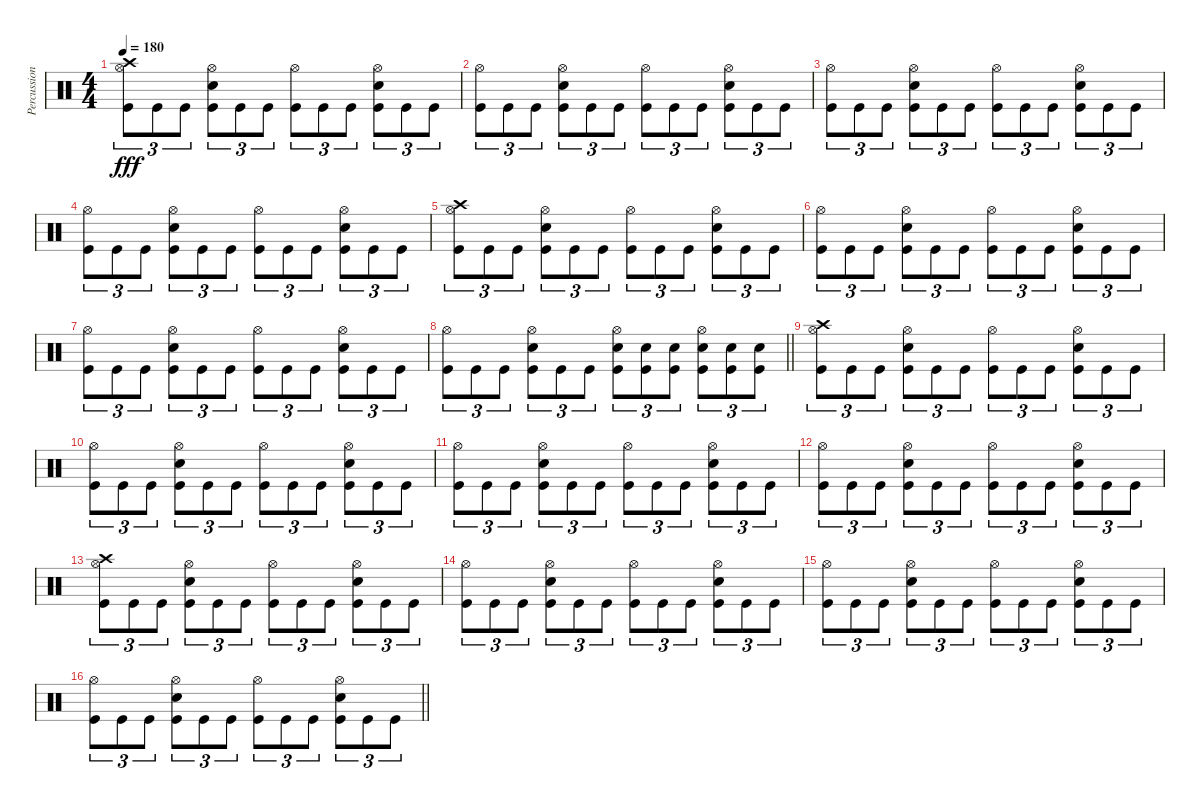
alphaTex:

\track ("Percussion" "Percussion") {instrument percussion}
\staff {score}
\articulation defaults
\ts (4 4)
\tempo 180
\clef neutral
\ks c
("Crash high (hit)" "Hi-Hat (open)" "Kick (hit)").8{tu (3 2) dy fff} "Kick (hit)".8{tu (3 2)} "Kick (hit)".8{tu (3 2)} ("Hi-Hat (open)" "Electric Snare (hit)" "Kick (hit)").8{tu (3 2)} "Kick (hit)".8{tu (3 2)} "Kick (hit)".8{tu (3 2)} ("Hi-Hat (open)" "Kick (hit)").8{tu (3 2)} "Kick (hit)".8{tu (3 2)} "Kick (hit)".8{tu (3 2)} ("Hi-Hat (open)" "Electric Snare (hit)" "Kick (hit)").8{tu (3 2)} "Kick (hit)".8{tu (3 2)} "Kick (hit)".8{tu (3 2)} |
("Hi-Hat (open)" "Kick (hit)").8{tu (3 2)} "Kick (hit)".8{tu (3 2)} "Kick (hit)".8{tu (3 2)} ("Hi-Hat (open)" "Electric Snare (hit)" "Kick (hit)").8{tu (3 2)} "Kick (hit)".8{tu (3 2)} "Kick (hit)".8{tu (3 2)} ("Hi-Hat (open)" "Kick (hit)").8{tu (3 2)} "Kick (hit)".8{tu (3 2)} "Kick (hit)".8{tu (3 2)} ("Hi-Hat (open)" "Electric Snare (hit)" "Kick (hit)").8{tu (3 2)} "Kick (hit)".8{tu (3 2)} "Kick (hit)".8{tu (3 2)} |
("Hi-Hat (open)" "Kick (hit)").8{tu (3 2)} "Kick (hit)".8{tu (3 2)} "Kick (hit)".8{tu (3 2)} ("Hi-Hat (open)" "Electric Snare (hit)" "Kick (hit)").8{tu (3 2)} "Kick (hit)".8{tu (3 2)} "Kick (hit)".8{tu (3 2)} ("Hi-Hat (open)" "Kick (hit)").8{tu (3 2)} "Kick (hit)".8{tu (3 2)} "Kick (hit)".8{tu (3 2)} ("Hi-Hat (open)" "Electric Snare (hit)" "Kick (hit)").8{tu (3 2)} "Kick (hit)".8{tu (3 2)} "Kick (hit)".8{tu (3 2)} |
("Hi-Hat (open)" "Kick (hit)").8{tu (3 2)} "Kick (hit)".8{tu (3 2)} "Kick (hit)".8{tu (3 2)} ("Hi-Hat (open)" "Electric Snare (hit)" "Kick (hit)").8{tu (3 2)} "Kick (hit)".8{tu (3 2)} "Kick (hit)".8{tu (3 2)} ("Hi-Hat (open)" "Kick (hit)").8{tu (3 2)} "Kick (hit)".8{tu (3 2)} "Kick (hit)".8{tu (3 2)} ("Hi-Hat (open)" "Electric Snare (hit)" "Kick (hit)").8{tu (3 2)} "Kick (hit)".8{tu (3 2)} "Kick (hit)".8{tu (3 2)} |
("Crash high (hit)" "Hi-Hat (open)" "Kick (hit)").8{tu (3 2)} "Kick (hit)".8{tu (3 2)} "Kick (hit)".8{tu (3 2)} ("Hi-Hat (open)" "Electric Snare (hit)" "Kick (hit)").8{tu (3 2)} "Kick (hit)".8{tu (3 2)} "Kick (hit)".8{tu (3 2)} ("Hi-Hat (open)" "Kick (hit)").8{tu (3 2)} "Kick (hit)".8{tu (3 2)} "Kick (hit)".8{tu (3 2)} ("Hi-Hat (open)" "Electric Snare (hit)" "Kick (hit)").8{tu (3 2)} "Kick (hit)".8{tu (3 2)} "Kick (hit)".8{tu (3 2)} |
("Hi-Hat (open)" "Kick (hit)").8{tu (3 2)} "Kick (hit)".8{tu (3 2)} "Kick (hit)".8{tu (3 2)} ("Hi-Hat (open)" "Electric Snare (hit)" "Kick (hit)").8{tu (3 2)} "Kick (hit)".8{tu (3 2)} "Kick (hit)".8{tu (3 2)} ("Hi-Hat (open)" "Kick (hit)").8{tu (3 2)} "Kick (hit)".8{tu (3 2)} "Kick (hit)".8{tu (3 2)} ("Hi-Hat (open)" "Electric Snare (hit)" "Kick (hit)").8{tu (3 2)} "Kick (hit)".8{tu (3 2)} "Kick (hit)".8{tu (3 2)} |
("Hi-Hat (open)" "Kick (hit)").8{tu (3 2)} "Kick (hit)".8{tu (3 2)} "Kick (hit)".8{tu (3 2)} ("Hi-Hat (open)" "Electric Snare (hit)" "Kick (hit)").8{tu (3 2)} "Kick (hit)".8{tu (3 2)} "Kick (hit)".8{tu (3 2)} ("Hi-Hat (open)" "Kick (hit)").8{tu (3 2)} "Kick (hit)".8{tu (3 2)} "Kick (hit)".8{tu (3 2)} ("Hi-Hat (open)" "Electric Snare (hit)" "Kick (hit)").8{tu (3 2)} "Kick (hit)".8{tu (3 2)} "Kick (hit)".8{tu (3 2)} |
\barLineRight lightlight
("Hi-Hat (open)" "Kick (hit)").8{tu (3 2)} "Kick (hit)".8{tu (3 2)} "Kick (hit)".8{tu (3 2)} ("Hi-Hat (open)" "Electric Snare (hit)" "Kick (hit)").8{tu (3 2)} "Kick (hit)".8{tu (3 2)} "Kick (hit)".8{tu (3 2)} ("Hi-Hat (open)" "Electric Snare (hit)" "Kick (hit)").8{tu (3 2)} ("Electric Snare (hit)" "Kick (hit)").8{tu (3 2)} ("Electric Snare (hit)" "Kick (hit)").8{tu (3 2)} ("Hi-Hat (open)" "Electric Snare (hit)" "Kick (hit)").8{tu (3 2)} ("Electric Snare (hit)" "Kick (hit)").8{tu (3 2)} ("Electric Snare (hit)" "Kick (hit)").8{tu (3 2)} |
\section ("" "")
("Crash high (hit)" "Hi-Hat (open)" "Kick (hit)").8{tu (3 2)} "Kick (hit)".8{tu (3 2)} "Kick (hit)".8{tu (3 2)} ("Hi-Hat (open)" "Electric Snare (hit)" "Kick (hit)").8{tu (3 2)} "Kick (hit)".8{tu (3 2)} "Kick (hit)".8{tu (3 2)} ("Hi-Hat (open)" "Kick (hit)").8{tu (3 2)} "Kick (hit)".8{tu (3 2)} "Kick (hit)".8{tu (3 2)} ("Hi-Hat (open)" "Electric Snare (hit)" "Kick (hit)").8{tu (3 2)} "Kick (hit)".8{tu (3 2)} "Kick (hit)".8{tu (3 2)} |
("Hi-Hat (open)" "Kick (hit)").8{tu (3 2)} "Kick (hit)".8{tu (3 2)} "Kick (hit)".8{tu (3 2)} ("Hi-Hat (open)" "Electric Snare (hit)" "Kick (hit)").8{tu (3 2)} "Kick (hit)".8{tu (3 2)} "Kick (hit)".8{tu (3 2)} ("Hi-Hat (open)" "Kick (hit)").8{tu (3 2)} "Kick (hit)".8{tu (3 2)} "Kick (hit)".8{tu (3 2)} ("Hi-Hat (open)" "Electric Snare (hit)" "Kick (hit)").8{tu (3 2)} "Kick (hit)".8{tu (3 2)} "Kick (hit)".8{tu (3 2)} |
("Hi-Hat (open)" "Kick (hit)").8{tu (3 2)} "Kick (hit)".8{tu (3 2)} "Kick (hit)".8{tu (3 2)} ("Hi-Hat (open)" "Electric Snare (hit)" "Kick (hit)").8{tu (3 2)} "Kick (hit)".8{tu (3 2)} "Kick (hit)".8{tu (3 2)} ("Hi-Hat (open)" "Kick (hit)").8{tu (3 2)} "Kick (hit)".8{tu (3 2)} "Kick (hit)".8{tu (3 2)} ("Hi-Hat (open)" "Electric Snare (hit)" "Kick (hit)").8{tu (3 2)} "Kick (hit)".8{tu (3 2)} "Kick (hit)".8{tu (3 2)} |
("Hi-Hat (open)" "Kick (hit)").8{tu (3 2)} "Kick (hit)".8{tu (3 2)} "Kick (hit)".8{tu (3 2)} ("Hi-Hat (open)" "Electric Snare (hit)" "Kick (hit)").8{tu (3 2)} "Kick (hit)".8{tu (3 2)} "Kick (hit)".8{tu (3 2)} ("Hi-Hat (open)" "Kick (hit)").8{tu (3 2)} "Kick (hit)".8{tu (3 2)} "Kick (hit)".8{tu (3 2)} ("Hi-Hat (open)" "Electric Snare (hit)" "Kick (hit)").8{tu (3 2)} "Kick (hit)".8{tu (3 2)} "Kick (hit)".8{tu (3 2)} |
("Crash high (hit)" "Hi-Hat (open)" "Kick (hit)").8{tu (3 2)} "Kick (hit)".8{tu (3 2)} "Kick (hit)".8{tu (3 2)} ("Hi-Hat (open)" "Electric Snare (hit)" "Kick (hit)").8{tu (3 2)} "Kick (hit)".8{tu (3 2)} "Kick (hit)".8{tu (3 2)} ("Hi-Hat (open)" "Kick (hit)").8{tu (3 2)} "Kick (hit)".8{tu (3 2)} "Kick (hit)".8{tu (3 2)} ("Hi-Hat (open)" "Electric Snare (hit)" "Kick (hit)").8{tu (3 2)} "Kick (hit)".8{tu (3 2)} "Kick (hit)".8{tu (3 2)} |
("Hi-Hat (open)" "Kick (hit)").8{tu (3 2)} "Kick (hit)".8{tu (3 2)} "Kick (hit)".8{tu (3 2)} ("Hi-Hat (open)" "Electric Snare (hit)" "Kick (hit)").8{tu (3 2)} "Kick (hit)".8{tu (3 2)} "Kick (hit)".8{tu (3 2)} ("Hi-Hat (open)" "Kick (hit)").8{tu (3 2)} "Kick (hit)".8{tu (3 2)} "Kick (hit)".8{tu (3 2)} ("Hi-Hat (open)" "Electric Snare (hit)" "Kick (hit)").8{tu (3 2)} "Kick (hit)".8{tu (3 2)} "Kick (hit)".8{tu (3 2)} |
("Hi-Hat (open)" "Kick (hit)").8{tu (3 2)} "Kick (hit)".8{tu (3 2)} "Kick (hit)".8{tu (3 2)} ("Hi-Hat (open)" "Electric Snare (hit)" "Kick (hit)").8{tu (3 2)} "Kick (hit)".8{tu (3 2)} "Kick (hit)".8{tu (3 2)} ("Hi-Hat (open)" "Kick (hit)").8{tu (3 2)} "Kick (hit)".8{tu (3 2)} "Kick (hit)".8{tu (3 2)} ("Hi-Hat (open)" "Electric Snare (hit)" "Kick (hit)").8{tu (3 2)} "Kick (hit)".8{tu (3 2)} "Kick (hit)".8{tu (3 2)} |
\barLineRight lightlight
("Hi-Hat (open)" "Kick (hit)").8{tu (3 2)} "Kick (hit)".8{tu (3 2)} "Kick (hit)".8{tu (3 2)} ("Hi-Hat (open)" "Electric Snare (hit)" "Kick (hit)").8{tu (3 2)} "Kick (hit)".8{tu (3 2)} "Kick (hit)".8{tu (3 2)} ("Hi-Hat (open)" "Kick (hit)").8{tu (3 2)} "Kick (hit)".8{tu (3 2)} "Kick (hit)".8{tu (3 2)} ("Hi-Hat (open)" "Electric Snare (hit)" "Kick (hit)").8{tu (3 2)} "Kick (hit)".8{tu (3 2)} "Kick (hit)".8{tu (3 2)}
